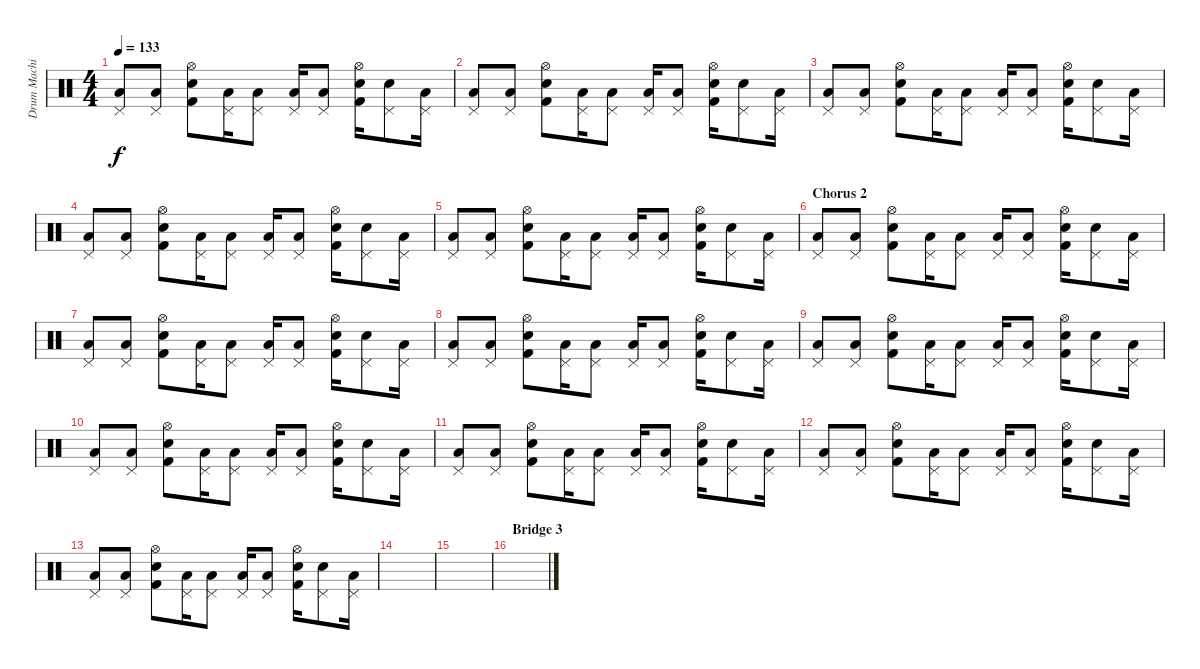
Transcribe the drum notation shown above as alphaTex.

\track ("Drum Machine" "Drum Machi") {instrument percussion}
\staff {score}
\articulation defaults
\ts (4 4)
\tempo 133
\clef neutral
\ks c
("Pedal Hi-Hat (hit)" "Low Tom (hit)").8{dy f} ("Pedal Hi-Hat (hit)" "Low Tom (hit)").8 ("Hi-Hat (open)" "Snare (hit) 2" "Kick (hit) 2").8 ("Pedal Hi-Hat (hit)" "Low Tom (hit)").16 ("Pedal Hi-Hat (hit)" "Low Tom (hit)").8 ("Pedal Hi-Hat (hit)" "Low Tom (hit)").16 ("Pedal Hi-Hat (hit)" "Low Tom (hit)").8 ("Hi-Hat (open)" "Snare (hit) 2" "Kick (hit) 2").16 ("Pedal Hi-Hat (hit)" "Snare (hit) 2").8 ("Pedal Hi-Hat (hit)" "Low Tom (hit)").16 |
("Pedal Hi-Hat (hit)" "Low Tom (hit)").8 ("Pedal Hi-Hat (hit)" "Low Tom (hit)").8 ("Hi-Hat (open)" "Snare (hit) 2" "Kick (hit) 2").8 ("Pedal Hi-Hat (hit)" "Low Tom (hit)").16 ("Pedal Hi-Hat (hit)" "Low Tom (hit)").8 ("Pedal Hi-Hat (hit)" "Low Tom (hit)").16 ("Pedal Hi-Hat (hit)" "Low Tom (hit)").8 ("Hi-Hat (open)" "Snare (hit) 2" "Kick (hit) 2").16 ("Pedal Hi-Hat (hit)" "Snare (hit) 2").8 ("Pedal Hi-Hat (hit)" "Low Tom (hit)").16 |
("Pedal Hi-Hat (hit)" "Low Tom (hit)").8 ("Pedal Hi-Hat (hit)" "Low Tom (hit)").8 ("Hi-Hat (open)" "Snare (hit) 2" "Kick (hit) 2").8 ("Pedal Hi-Hat (hit)" "Low Tom (hit)").16 ("Pedal Hi-Hat (hit)" "Low Tom (hit)").8 ("Pedal Hi-Hat (hit)" "Low Tom (hit)").16 ("Pedal Hi-Hat (hit)" "Low Tom (hit)").8 ("Hi-Hat (open)" "Snare (hit) 2" "Kick (hit) 2").16 ("Pedal Hi-Hat (hit)" "Snare (hit) 2").8 ("Pedal Hi-Hat (hit)" "Low Tom (hit)").16 |
("Pedal Hi-Hat (hit)" "Low Tom (hit)").8 ("Pedal Hi-Hat (hit)" "Low Tom (hit)").8 ("Hi-Hat (open)" "Snare (hit) 2" "Kick (hit) 2").8 ("Pedal Hi-Hat (hit)" "Low Tom (hit)").16 ("Pedal Hi-Hat (hit)" "Low Tom (hit)").8 ("Pedal Hi-Hat (hit)" "Low Tom (hit)").16 ("Pedal Hi-Hat (hit)" "Low Tom (hit)").8 ("Hi-Hat (open)" "Snare (hit) 2" "Kick (hit) 2").16 ("Pedal Hi-Hat (hit)" "Snare (hit) 2").8 ("Pedal Hi-Hat (hit)" "Low Tom (hit)").16 |
("Pedal Hi-Hat (hit)" "Low Tom (hit)").8 ("Pedal Hi-Hat (hit)" "Low Tom (hit)").8 ("Hi-Hat (open)" "Snare (hit) 2" "Kick (hit) 2").8 ("Pedal Hi-Hat (hit)" "Low Tom (hit)").16 ("Pedal Hi-Hat (hit)" "Low Tom (hit)").8 ("Pedal Hi-Hat (hit)" "Low Tom (hit)").16 ("Pedal Hi-Hat (hit)" "Low Tom (hit)").8 ("Hi-Hat (open)" "Snare (hit) 2" "Kick (hit) 2").16 ("Pedal Hi-Hat (hit)" "Snare (hit) 2").8 ("Pedal Hi-Hat (hit)" "Low Tom (hit)").16 |
\section ("" "Chorus 2")
("Pedal Hi-Hat (hit)" "Low Tom (hit)").8 ("Pedal Hi-Hat (hit)" "Low Tom (hit)").8 ("Hi-Hat (open)" "Snare (hit) 2" "Kick (hit) 2").8 ("Pedal Hi-Hat (hit)" "Low Tom (hit)").16 ("Pedal Hi-Hat (hit)" "Low Tom (hit)").8 ("Pedal Hi-Hat (hit)" "Low Tom (hit)").16 ("Pedal Hi-Hat (hit)" "Low Tom (hit)").8 ("Hi-Hat (open)" "Snare (hit) 2" "Kick (hit) 2").16 ("Pedal Hi-Hat (hit)" "Snare (hit) 2").8 ("Pedal Hi-Hat (hit)" "Low Tom (hit)").16 |
("Pedal Hi-Hat (hit)" "Low Tom (hit)").8 ("Pedal Hi-Hat (hit)" "Low Tom (hit)").8 ("Hi-Hat (open)" "Snare (hit) 2" "Kick (hit) 2").8 ("Pedal Hi-Hat (hit)" "Low Tom (hit)").16 ("Pedal Hi-Hat (hit)" "Low Tom (hit)").8 ("Pedal Hi-Hat (hit)" "Low Tom (hit)").16 ("Pedal Hi-Hat (hit)" "Low Tom (hit)").8 ("Hi-Hat (open)" "Snare (hit) 2" "Kick (hit) 2").16 ("Pedal Hi-Hat (hit)" "Snare (hit) 2").8 ("Pedal Hi-Hat (hit)" "Low Tom (hit)").16 |
("Pedal Hi-Hat (hit)" "Low Tom (hit)").8 ("Pedal Hi-Hat (hit)" "Low Tom (hit)").8 ("Hi-Hat (open)" "Snare (hit) 2" "Kick (hit) 2").8 ("Pedal Hi-Hat (hit)" "Low Tom (hit)").16 ("Pedal Hi-Hat (hit)" "Low Tom (hit)").8 ("Pedal Hi-Hat (hit)" "Low Tom (hit)").16 ("Pedal Hi-Hat (hit)" "Low Tom (hit)").8 ("Hi-Hat (open)" "Snare (hit) 2" "Kick (hit) 2").16 ("Pedal Hi-Hat (hit)" "Snare (hit) 2").8 ("Pedal Hi-Hat (hit)" "Low Tom (hit)").16 |
("Pedal Hi-Hat (hit)" "Low Tom (hit)").8 ("Pedal Hi-Hat (hit)" "Low Tom (hit)").8 ("Hi-Hat (open)" "Snare (hit) 2" "Kick (hit) 2").8 ("Pedal Hi-Hat (hit)" "Low Tom (hit)").16 ("Pedal Hi-Hat (hit)" "Low Tom (hit)").8 ("Pedal Hi-Hat (hit)" "Low Tom (hit)").16 ("Pedal Hi-Hat (hit)" "Low Tom (hit)").8 ("Hi-Hat (open)" "Snare (hit) 2" "Kick (hit) 2").16 ("Pedal Hi-Hat (hit)" "Snare (hit) 2").8 ("Pedal Hi-Hat (hit)" "Low Tom (hit)").16 |
("Pedal Hi-Hat (hit)" "Low Tom (hit)").8 ("Pedal Hi-Hat (hit)" "Low Tom (hit)").8 ("Hi-Hat (open)" "Snare (hit) 2" "Kick (hit) 2").8 ("Pedal Hi-Hat (hit)" "Low Tom (hit)").16 ("Pedal Hi-Hat (hit)" "Low Tom (hit)").8 ("Pedal Hi-Hat (hit)" "Low Tom (hit)").16 ("Pedal Hi-Hat (hit)" "Low Tom (hit)").8 ("Hi-Hat (open)" "Snare (hit) 2" "Kick (hit) 2").16 ("Pedal Hi-Hat (hit)" "Snare (hit) 2").8 ("Pedal Hi-Hat (hit)" "Low Tom (hit)").16 |
("Pedal Hi-Hat (hit)" "Low Tom (hit)").8 ("Pedal Hi-Hat (hit)" "Low Tom (hit)").8 ("Hi-Hat (open)" "Snare (hit) 2" "Kick (hit) 2").8 ("Pedal Hi-Hat (hit)" "Low Tom (hit)").16 ("Pedal Hi-Hat (hit)" "Low Tom (hit)").8 ("Pedal Hi-Hat (hit)" "Low Tom (hit)").16 ("Pedal Hi-Hat (hit)" "Low Tom (hit)").8 ("Hi-Hat (open)" "Snare (hit) 2" "Kick (hit) 2").16 ("Pedal Hi-Hat (hit)" "Snare (hit) 2").8 ("Pedal Hi-Hat (hit)" "Low Tom (hit)").16 |
("Pedal Hi-Hat (hit)" "Low Tom (hit)").8 ("Pedal Hi-Hat (hit)" "Low Tom (hit)").8 ("Hi-Hat (open)" "Snare (hit) 2" "Kick (hit) 2").8 ("Pedal Hi-Hat (hit)" "Low Tom (hit)").16 ("Pedal Hi-Hat (hit)" "Low Tom (hit)").8 ("Pedal Hi-Hat (hit)" "Low Tom (hit)").16 ("Pedal Hi-Hat (hit)" "Low Tom (hit)").8 ("Hi-Hat (open)" "Snare (hit) 2" "Kick (hit) 2").16 ("Pedal Hi-Hat (hit)" "Snare (hit) 2").8 ("Pedal Hi-Hat (hit)" "Low Tom (hit)").16 |
("Pedal Hi-Hat (hit)" "Low Tom (hit)").8 ("Pedal Hi-Hat (hit)" "Low Tom (hit)").8 ("Hi-Hat (open)" "Snare (hit) 2" "Kick (hit) 2").8 ("Pedal Hi-Hat (hit)" "Low Tom (hit)").16 ("Pedal Hi-Hat (hit)" "Low Tom (hit)").8 ("Pedal Hi-Hat (hit)" "Low Tom (hit)").16 ("Pedal Hi-Hat (hit)" "Low Tom (hit)").8 ("Hi-Hat (open)" "Snare (hit) 2" "Kick (hit) 2").16 ("Pedal Hi-Hat (hit)" "Snare (hit) 2").8 ("Pedal Hi-Hat (hit)" "Low Tom (hit)").16 |
|
|
\section ("" "Bridge 3")
